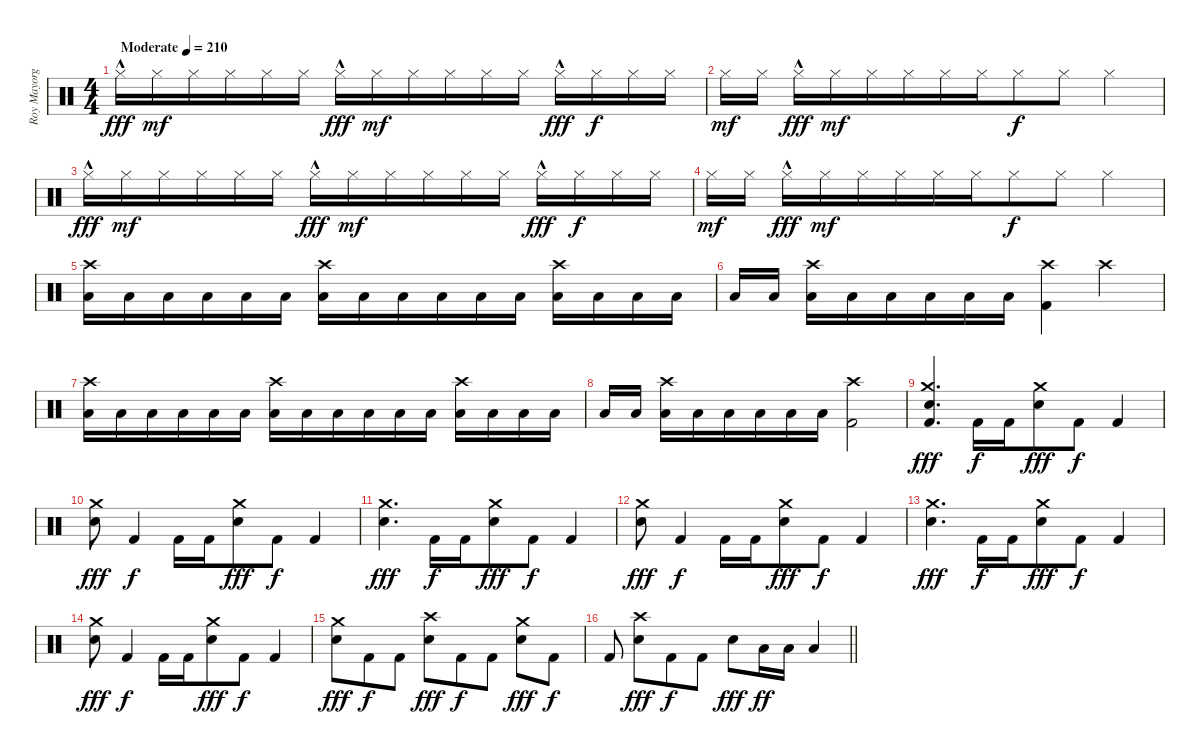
\track ("Roy Mayorga" "Roy Mayorg") {instrument percussion}
\staff {score}
\articulation defaults
\ts (4 4)
\tempo (210 "Moderate")
\clef neutral
\ks c "Hi-Hat (closed)"{hac}.16{dy fff} "Hi-Hat (closed)".16{dy mf} "Hi-Hat (closed)".16 "Hi-Hat (closed)".16{beam merge} "Hi-Hat (closed)".16 "Hi-Hat (closed)".16{beam split} "Hi-Hat (closed)"{hac}.16{dy fff} "Hi-Hat (closed)".16{dy mf beam merge} "Hi-Hat (closed)".16 "Hi-Hat (closed)".16 "Hi-Hat (closed)".16 "Hi-Hat (closed)".16{beam split} "Hi-Hat (closed)"{hac}.16{dy fff} "Hi-Hat (closed)".16{dy f} "Hi-Hat (closed)".16 "Hi-Hat (closed)".16
|
"Hi-Hat (closed)".16{dy mf} "Hi-Hat (closed)".16{beam split} "Hi-Hat (closed)"{hac}.16{dy fff} "Hi-Hat (closed)".16{dy mf beam merge} "Hi-Hat (closed)".16 "Hi-Hat (closed)".16 "Hi-Hat (closed)".16 "Hi-Hat (closed)".16{beam merge} "Hi-Hat (closed)".8{dy f} "Hi-Hat (closed)".8 "Hi-Hat (closed)".4 |
"Hi-Hat (closed)"{hac}.16{dy fff} "Hi-Hat (closed)".16{dy mf} "Hi-Hat (closed)".16 "Hi-Hat (closed)".16{beam merge} "Hi-Hat (closed)".16 "Hi-Hat (closed)".16{beam split} "Hi-Hat (closed)"{hac}.16{dy fff} "Hi-Hat (closed)".16{dy mf beam merge} "Hi-Hat (closed)".16 "Hi-Hat (closed)".16 "Hi-Hat (closed)".16 "Hi-Hat (closed)".16{beam split} "Hi-Hat (closed)"{hac}.16{dy fff} "Hi-Hat (closed)".16{dy f} "Hi-Hat (closed)".16 "Hi-Hat (closed)".16 |
"Hi-Hat (closed)".16{dy mf} "Hi-Hat (closed)".16{beam split} "Hi-Hat (closed)"{hac}.16{dy fff} "Hi-Hat (closed)".16{dy mf beam merge} "Hi-Hat (closed)".16 "Hi-Hat (closed)".16 "Hi-Hat (closed)".16 "Hi-Hat (closed)".16{beam merge} "Hi-Hat (closed)".8{dy f} "Hi-Hat (closed)".8 "Hi-Hat (closed)".4 |
("Crash high (hit)" "Low Tom (hit)").16 "Low Tom (hit)".16 "Low Tom (hit)".16 "Low Tom (hit)".16{beam merge} "Low Tom (hit)".16 "Low Tom (hit)".16{beam split} ("Crash high (hit)" "Low Tom (hit)").16 "Low Tom (hit)".16{beam merge} "Low Tom (hit)".16 "Low Tom (hit)".16 "Low Tom (hit)".16 "Low Tom (hit)".16{beam split} ("Crash high (hit)" "Low Tom (hit)").16 "Low Tom (hit)".16 "Low Tom (hit)".16 "Low Tom (hit)".16 |
"Low Tom (hit)".16 "Low Tom (hit)".16{beam split} ("Crash high (hit)" "Low Tom (hit)").16 "Low Tom (hit)".16{beam merge} "Low Tom (hit)".16 "Low Tom (hit)".16 "Low Tom (hit)".16 "Low Tom (hit)".16 ("Crash high (hit)" "Kick (hit) 2").4 "Crash high (hit)".4 |
("Crash high (hit)" "Low Tom (hit)").16 "Low Tom (hit)".16 "Low Tom (hit)".16 "Low Tom (hit)".16{beam merge} "Low Tom (hit)".16 "Low Tom (hit)".16{beam split} ("Crash high (hit)" "Low Tom (hit)").16 "Low Tom (hit)".16{beam merge} "Low Tom (hit)".16 "Low Tom (hit)".16 "Low Tom (hit)".16 "Low Tom (hit)".16{beam split} ("Crash high (hit)" "Low Tom (hit)").16 "Low Tom (hit)".16 "Low Tom (hit)".16 "Low Tom (hit)".16 |
"Low Tom (hit)".16 "Low Tom (hit)".16{beam split} ("Crash high (hit)" "Low Tom (hit)").16 "Low Tom (hit)".16{beam merge} "Low Tom (hit)".16 "Low Tom (hit)".16 "Low Tom (hit)".16 "Low Tom (hit)".16 ("Crash high (hit)" "Kick (hit) 2").2 |
("Crash medium (hit)" "Electric Snare (hit)" "Kick (hit) 2").4{d dy fff} "Kick (hit) 2".16{dy f} "Kick (hit) 2".16{beam merge} ("Crash medium (hit)" "Electric Snare (hit)").8{dy fff} "Kick (hit) 2".8{dy f} "Kick (hit) 2".4 |
("Crash medium (hit)" "Electric Snare (hit)").8{dy fff} "Kick (hit) 2".4{dy f} "Kick (hit) 2".16 "Kick (hit) 2".16{beam merge} ("Crash medium (hit)" "Electric Snare (hit)").8{dy fff} "Kick (hit) 2".8{dy f} "Kick (hit) 2".4 |
("Crash medium (hit)" "Electric Snare (hit)").4{d dy fff} "Kick (hit) 2".16{dy f} "Kick (hit) 2".16{beam merge} ("Crash medium (hit)" "Electric Snare (hit)").8{dy fff} "Kick (hit) 2".8{dy f} "Kick (hit) 2".4 |
("Crash medium (hit)" "Electric Snare (hit)").8{dy fff} "Kick (hit) 2".4{dy f} "Kick (hit) 2".16 "Kick (hit) 2".16{beam merge} ("Crash medium (hit)" "Electric Snare (hit)").8{dy fff} "Kick (hit) 2".8{dy f} "Kick (hit) 2".4 |
("Crash medium (hit)" "Electric Snare (hit)").4{d dy fff} "Kick (hit) 2".16{dy f} "Kick (hit) 2".16{beam merge} ("Crash medium (hit)" "Electric Snare (hit)").8{dy fff} "Kick (hit) 2".8{dy f} "Kick (hit) 2".4 |
("Crash medium (hit)" "Electric Snare (hit)").8{dy fff} "Kick (hit) 2".4{dy f} "Kick (hit) 2".16 "Kick (hit) 2".16{beam merge} ("Crash medium (hit)" "Electric Snare (hit)").8{dy fff} "Kick (hit) 2".8{dy f} "Kick (hit) 2".4 |
("Crash medium (hit)" "Electric Snare (hit)").8{dy fff} "Kick (hit) 2".8{dy f beam merge} "Kick (hit) 2".8{beam split} ("Crash high (hit)" "Electric Snare (hit)").8{dy fff beam merge} "Kick (hit) 2".8{dy f} "Kick (hit) 2".8{beam split} ("Crash medium (hit)" "Electric Snare (hit)").8{dy fff} "Kick (hit) 2".8{dy f} |
\barLineRight lightlight "Kick (hit) 2".8{beam split}
("Crash high (hit)" "Electric Snare (hit)").8{dy fff beam merge} "Kick (hit) 2".8{dy f} "Kick (hit) 2".8 "Electric Snare (hit)".8{dy fff} "Low Tom (hit)".16{dy ff} "Low Tom (hit)".16 "Low Tom (hit)".4
